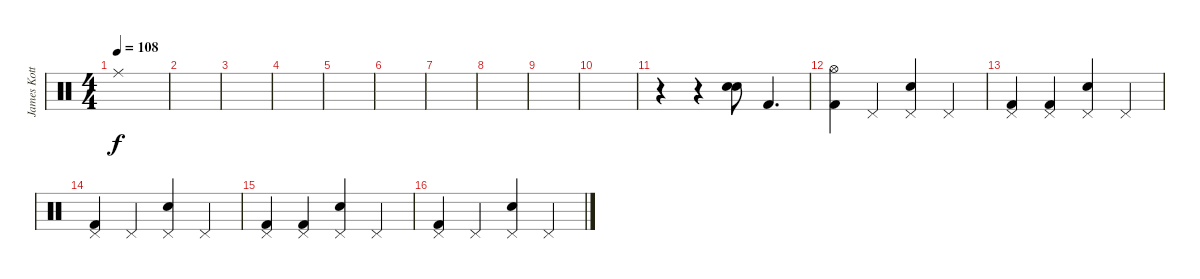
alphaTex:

\track ("James Kottak" "James Kott") {instrument percussion}
\staff {score}
\articulation defaults
\ts (4 4)
\tempo 108
\clef neutral
\ks c "Ride (middle)".1{dy f}
|
|
|
|
|
|
|
|
|
|
r.4 r.4 ("Snare (hit) 2" "Snare (hit) 2").8{bd 120} "Kick (hit) 2".4{d} |
("Hi-Hat (open)" "Kick (hit) 2").4 "Pedal Hi-Hat (hit)".4 ("Pedal Hi-Hat (hit)" "Snare (hit) 2").4 "Pedal Hi-Hat (hit)".4 |
("Pedal Hi-Hat (hit)" "Kick (hit) 2").4 ("Pedal Hi-Hat (hit)" "Kick (hit) 2").4 ("Pedal Hi-Hat (hit)" "Snare (hit) 2").4 "Pedal Hi-Hat (hit)".4 |
("Pedal Hi-Hat (hit)" "Kick (hit) 2").4 "Pedal Hi-Hat (hit)".4 ("Pedal Hi-Hat (hit)" "Snare (hit) 2").4 "Pedal Hi-Hat (hit)".4 |
("Pedal Hi-Hat (hit)" "Kick (hit) 2").4 ("Pedal Hi-Hat (hit)" "Kick (hit) 2").4 ("Pedal Hi-Hat (hit)" "Snare (hit) 2").4 "Pedal Hi-Hat (hit)".4 |
("Pedal Hi-Hat (hit)" "Kick (hit) 2").4 "Pedal Hi-Hat (hit)".4 ("Pedal Hi-Hat (hit)" "Snare (hit) 2").4 "Pedal Hi-Hat (hit)".4
